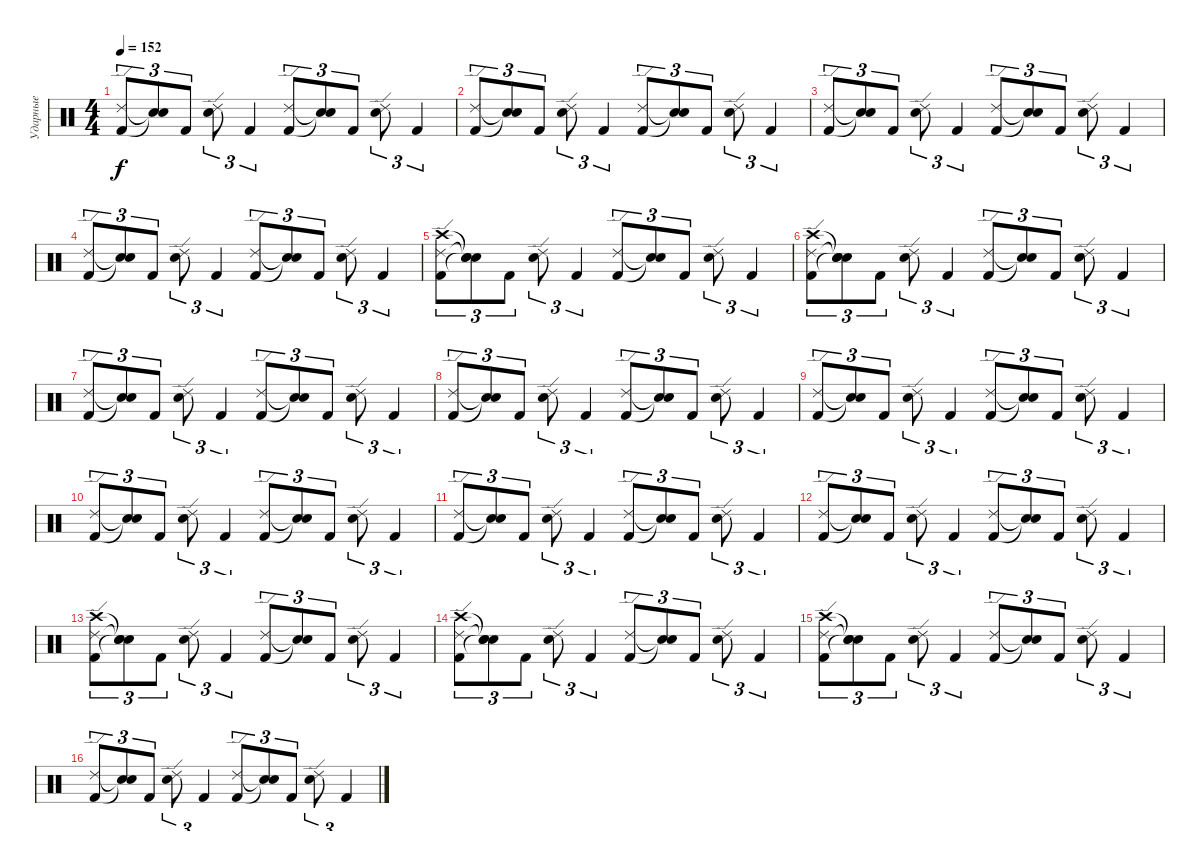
\track ("Ударные" "Ударные") {instrument percussion}
\staff {score}
\articulation defaults
\ts (4 4)
\tempo 152
\clef neutral
\ks c
("Kick (hit) 2" "Ride (edge) 2").8{tu (3 2) dy f} ("Snare (hit)"{t} "Snare (hit)"{t}).8{tu (3 2)} "Kick (hit) 2".8{tu (3 2)} ("Electric Snare (hit)" "Ride (edge) 2").8{tu (3 2)} "Kick (hit) 2".4{tu (3 2)} ("Kick (hit) 2" "Ride (edge) 2").8{tu (3 2)} ("Snare (hit)"{t} "Snare (hit)"{t}).8{tu (3 2)} "Kick (hit) 2".8{tu (3 2)} ("Electric Snare (hit)" "Ride (edge) 2").8{tu (3 2)} "Kick (hit) 2".4{tu (3 2)} |
("Kick (hit) 2" "Ride (edge) 2").8{tu (3 2)} ("Snare (hit)"{t} "Snare (hit)"{t}).8{tu (3 2)} "Kick (hit) 2".8{tu (3 2)} ("Electric Snare (hit)" "Ride (edge) 2").8{tu (3 2)} "Kick (hit) 2".4{tu (3 2)} ("Kick (hit) 2" "Ride (edge) 2").8{tu (3 2)} ("Snare (hit)"{t} "Snare (hit)"{t}).8{tu (3 2)} "Kick (hit) 2".8{tu (3 2)} ("Electric Snare (hit)" "Ride (edge) 2").8{tu (3 2)} "Kick (hit) 2".4{tu (3 2)} |
("Kick (hit) 2" "Ride (edge) 2").8{tu (3 2)} ("Snare (hit)"{t} "Snare (hit)"{t}).8{tu (3 2)} "Kick (hit) 2".8{tu (3 2)} ("Electric Snare (hit)" "Ride (edge) 2").8{tu (3 2)} "Kick (hit) 2".4{tu (3 2)} ("Kick (hit) 2" "Ride (edge) 2").8{tu (3 2)} ("Snare (hit)"{t} "Snare (hit)"{t}).8{tu (3 2)} "Kick (hit) 2".8{tu (3 2)} ("Electric Snare (hit)" "Ride (edge) 2").8{tu (3 2)} "Kick (hit) 2".4{tu (3 2)} |
("Kick (hit) 2" "Ride (edge) 2").8{tu (3 2)} ("Snare (hit)"{t} "Snare (hit)"{t}).8{tu (3 2)} "Kick (hit) 2".8{tu (3 2)} ("Electric Snare (hit)" "Ride (edge) 2").8{tu (3 2)} "Kick (hit) 2".4{tu (3 2)} ("Kick (hit) 2" "Ride (edge) 2").8{tu (3 2)} ("Snare (hit)"{t} "Snare (hit)"{t}).8{tu (3 2)} "Kick (hit) 2".8{tu (3 2)} ("Electric Snare (hit)" "Ride (edge) 2").8{tu (3 2)} "Kick (hit) 2".4{tu (3 2)} |
("Kick (hit) 2" "Crash high (hit)" "Ride (edge) 2").8{tu (3 2)} ("Snare (hit)"{t} "Snare (hit)"{t} "Snare (hit)"{t}).8{tu (3 2)} "Kick (hit) 2".8{tu (3 2)} ("Electric Snare (hit)" "Ride (edge) 2").8{tu (3 2)} "Kick (hit) 2".4{tu (3 2)} ("Kick (hit) 2" "Ride (edge) 2").8{tu (3 2)} ("Snare (hit)"{t} "Snare (hit)"{t}).8{tu (3 2)} "Kick (hit) 2".8{tu (3 2)} ("Electric Snare (hit)" "Ride (edge) 2").8{tu (3 2)} "Kick (hit) 2".4{tu (3 2)} |
("Kick (hit) 2" "Crash high (hit)" "Ride (edge) 2").8{tu (3 2)} ("Snare (hit)"{t} "Snare (hit)"{t} "Snare (hit)"{t}).8{tu (3 2)} "Kick (hit) 2".8{tu (3 2)} ("Electric Snare (hit)" "Ride (edge) 2").8{tu (3 2)} "Kick (hit) 2".4{tu (3 2)} ("Kick (hit) 2" "Ride (edge) 2").8{tu (3 2)} ("Snare (hit)"{t} "Snare (hit)"{t}).8{tu (3 2)} "Kick (hit) 2".8{tu (3 2)} ("Electric Snare (hit)" "Ride (edge) 2").8{tu (3 2)} "Kick (hit) 2".4{tu (3 2)} |
("Kick (hit) 2" "Ride (edge) 2").8{tu (3 2)} ("Snare (hit)"{t} "Snare (hit)"{t}).8{tu (3 2)} "Kick (hit) 2".8{tu (3 2)} ("Electric Snare (hit)" "Ride (edge) 2").8{tu (3 2)} "Kick (hit) 2".4{tu (3 2)} ("Kick (hit) 2" "Ride (edge) 2").8{tu (3 2)} ("Snare (hit)"{t} "Snare (hit)"{t}).8{tu (3 2)} "Kick (hit) 2".8{tu (3 2)} ("Electric Snare (hit)" "Ride (edge) 2").8{tu (3 2)} "Kick (hit) 2".4{tu (3 2)} |
("Kick (hit) 2" "Ride (edge) 2").8{tu (3 2)} ("Snare (hit)"{t} "Snare (hit)"{t}).8{tu (3 2)} "Kick (hit) 2".8{tu (3 2)} ("Electric Snare (hit)" "Ride (edge) 2").8{tu (3 2)} "Kick (hit) 2".4{tu (3 2)} ("Kick (hit) 2" "Ride (edge) 2").8{tu (3 2)} ("Snare (hit)"{t} "Snare (hit)"{t}).8{tu (3 2)} "Kick (hit) 2".8{tu (3 2)} ("Electric Snare (hit)" "Ride (edge) 2").8{tu (3 2)} "Kick (hit) 2".4{tu (3 2)} |
("Kick (hit) 2" "Ride (edge) 2").8{tu (3 2)} ("Snare (hit)"{t} "Snare (hit)"{t}).8{tu (3 2)} "Kick (hit) 2".8{tu (3 2)} ("Electric Snare (hit)" "Ride (edge) 2").8{tu (3 2)} "Kick (hit) 2".4{tu (3 2)} ("Kick (hit) 2" "Ride (edge) 2").8{tu (3 2)} ("Snare (hit)"{t} "Snare (hit)"{t}).8{tu (3 2)} "Kick (hit) 2".8{tu (3 2)} ("Electric Snare (hit)" "Ride (edge) 2").8{tu (3 2)} "Kick (hit) 2".4{tu (3 2)} |
("Kick (hit) 2" "Ride (edge) 2").8{tu (3 2)} ("Snare (hit)"{t} "Snare (hit)"{t}).8{tu (3 2)} "Kick (hit) 2".8{tu (3 2)} ("Electric Snare (hit)" "Ride (edge) 2").8{tu (3 2)} "Kick (hit) 2".4{tu (3 2)} ("Kick (hit) 2" "Ride (edge) 2").8{tu (3 2)} ("Snare (hit)"{t} "Snare (hit)"{t}).8{tu (3 2)} "Kick (hit) 2".8{tu (3 2)} ("Electric Snare (hit)" "Ride (edge) 2").8{tu (3 2)} "Kick (hit) 2".4{tu (3 2)} |
("Kick (hit) 2" "Ride (edge) 2").8{tu (3 2)} ("Snare (hit)"{t} "Snare (hit)"{t}).8{tu (3 2)} "Kick (hit) 2".8{tu (3 2)} ("Electric Snare (hit)" "Ride (edge) 2").8{tu (3 2)} "Kick (hit) 2".4{tu (3 2)} ("Kick (hit) 2" "Ride (edge) 2").8{tu (3 2)} ("Snare (hit)"{t} "Snare (hit)"{t}).8{tu (3 2)} "Kick (hit) 2".8{tu (3 2)} ("Electric Snare (hit)" "Ride (edge) 2").8{tu (3 2)} "Kick (hit) 2".4{tu (3 2)} |
("Kick (hit) 2" "Ride (edge) 2").8{tu (3 2)} ("Snare (hit)"{t} "Snare (hit)"{t}).8{tu (3 2)} "Kick (hit) 2".8{tu (3 2)} ("Electric Snare (hit)" "Ride (edge) 2").8{tu (3 2)} "Kick (hit) 2".4{tu (3 2)} ("Kick (hit) 2" "Ride (edge) 2").8{tu (3 2)} ("Snare (hit)"{t} "Snare (hit)"{t}).8{tu (3 2)} "Kick (hit) 2".8{tu (3 2)} ("Electric Snare (hit)" "Ride (edge) 2").8{tu (3 2)} "Kick (hit) 2".4{tu (3 2)} |
("Kick (hit) 2" "Crash high (hit)" "Ride (edge) 2").8{tu (3 2)} ("Snare (hit)"{t} "Snare (hit)"{t} "Snare (hit)"{t}).8{tu (3 2)} "Kick (hit) 2".8{tu (3 2)} ("Electric Snare (hit)" "Ride (edge) 2").8{tu (3 2)} "Kick (hit) 2".4{tu (3 2)} ("Kick (hit) 2" "Ride (edge) 2").8{tu (3 2)} ("Snare (hit)"{t} "Snare (hit)"{t}).8{tu (3 2)} "Kick (hit) 2".8{tu (3 2)} ("Electric Snare (hit)" "Ride (edge) 2").8{tu (3 2)} "Kick (hit) 2".4{tu (3 2)} |
("Kick (hit) 2" "Crash high (hit)" "Ride (edge) 2").8{tu (3 2)} ("Snare (hit)"{t} "Snare (hit)"{t} "Snare (hit)"{t}).8{tu (3 2)} "Kick (hit) 2".8{tu (3 2)} ("Electric Snare (hit)" "Ride (edge) 2").8{tu (3 2)} "Kick (hit) 2".4{tu (3 2)} ("Kick (hit) 2" "Ride (edge) 2").8{tu (3 2)} ("Snare (hit)"{t} "Snare (hit)"{t}).8{tu (3 2)} "Kick (hit) 2".8{tu (3 2)} ("Electric Snare (hit)" "Ride (edge) 2").8{tu (3 2)} "Kick (hit) 2".4{tu (3 2)} |
("Kick (hit) 2" "Crash high (hit)" "Ride (edge) 2").8{tu (3 2)} ("Snare (hit)"{t} "Snare (hit)"{t} "Snare (hit)"{t}).8{tu (3 2)} "Kick (hit) 2".8{tu (3 2)} ("Electric Snare (hit)" "Ride (edge) 2").8{tu (3 2)} "Kick (hit) 2".4{tu (3 2)} ("Kick (hit) 2" "Ride (edge) 2").8{tu (3 2)} ("Snare (hit)"{t} "Snare (hit)"{t}).8{tu (3 2)} "Kick (hit) 2".8{tu (3 2)} ("Electric Snare (hit)" "Ride (edge) 2").8{tu (3 2)} "Kick (hit) 2".4{tu (3 2)} |
("Kick (hit) 2" "Ride (edge) 2").8{tu (3 2)} ("Snare (hit)"{t} "Snare (hit)"{t}).8{tu (3 2)} "Kick (hit) 2".8{tu (3 2)} ("Electric Snare (hit)" "Ride (edge) 2").8{tu (3 2)} "Kick (hit) 2".4{tu (3 2)} ("Kick (hit) 2" "Ride (edge) 2").8{tu (3 2)} ("Snare (hit)"{t} "Snare (hit)"{t}).8{tu (3 2)} "Kick (hit) 2".8{tu (3 2)} ("Electric Snare (hit)" "Ride (edge) 2").8{tu (3 2)} "Kick (hit) 2".4{tu (3 2)}
